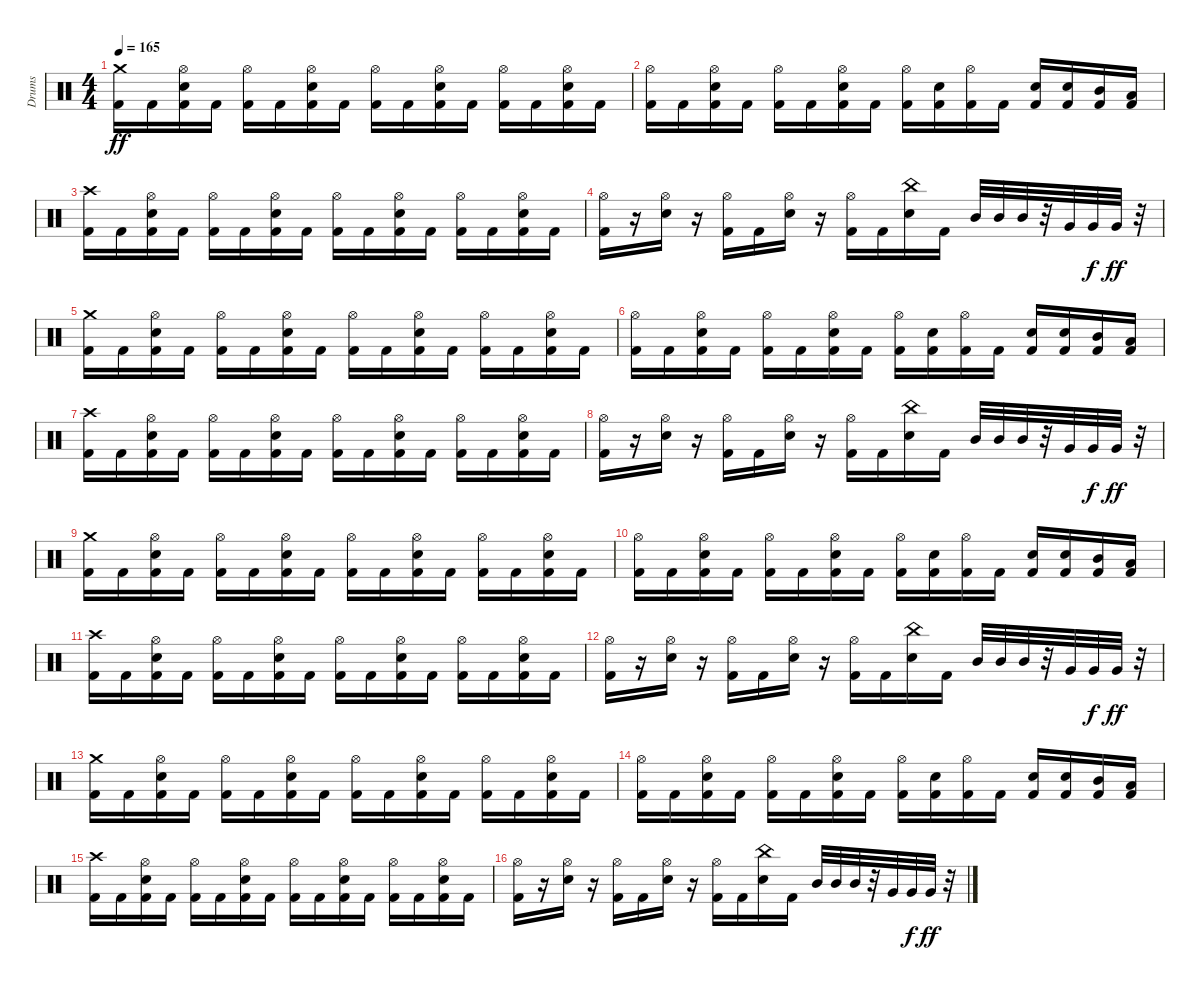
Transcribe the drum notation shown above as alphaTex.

\track ("Drums" "Drums") {instrument percussion}
\staff {score}
\articulation defaults
\ts (4 4)
\tempo 165
\clef neutral
\ks c
("Kick (hit) 2" "Crash medium (hit)").16{dy ff} "Kick (hit) 2".16 ("Kick (hit) 2" "Snare (hit) 2" "Hi-Hat (open)").16 "Kick (hit) 2".16 ("Kick (hit) 2" "Hi-Hat (open)").16 "Kick (hit) 2".16 ("Kick (hit) 2" "Snare (hit) 2" "Hi-Hat (open)").16 "Kick (hit) 2".16 ("Kick (hit) 2" "Hi-Hat (open)").16 "Kick (hit) 2".16 ("Kick (hit) 2" "Snare (hit) 2" "Hi-Hat (open)").16 "Kick (hit) 2".16 ("Kick (hit) 2" "Hi-Hat (open)").16 "Kick (hit) 2".16 ("Kick (hit) 2" "Snare (hit) 2" "Hi-Hat (open)").16 "Kick (hit) 2".16 |
("Kick (hit) 2" "Hi-Hat (open)").16 "Kick (hit) 2".16 ("Kick (hit) 2" "Snare (hit) 2" "Hi-Hat (open)").16 "Kick (hit) 2".16 ("Kick (hit) 2" "Hi-Hat (open)").16 "Kick (hit) 2".16 ("Kick (hit) 2" "Snare (hit) 2" "Hi-Hat (open)").16 "Kick (hit) 2".16 ("Kick (hit) 2" "Hi-Hat (open)").16 ("Kick (hit) 2" "Snare (hit) 2").16 ("Kick (hit) 2" "Hi-Hat (open)").16 "Kick (hit) 2".16 ("Kick (hit) 2" "Snare (hit) 2").16 ("Kick (hit) 2" "Snare (hit) 2").16 ("Kick (hit) 2" "Mid Tom (hit)").16 ("Kick (hit) 2" "Low Tom (hit)").16 |
("Kick (hit) 2" "Crash high (hit)").16 "Kick (hit) 2".16 ("Kick (hit) 2" "Snare (hit) 2" "Hi-Hat (open)").16 "Kick (hit) 2".16 ("Kick (hit) 2" "Hi-Hat (open)").16 "Kick (hit) 2".16 ("Kick (hit) 2" "Snare (hit) 2" "Hi-Hat (open)").16 "Kick (hit) 2".16 ("Kick (hit) 2" "Hi-Hat (open)").16 "Kick (hit) 2".16 ("Kick (hit) 2" "Snare (hit) 2" "Hi-Hat (open)").16 "Kick (hit) 2".16 ("Kick (hit) 2" "Hi-Hat (open)").16 "Kick (hit) 2".16 ("Kick (hit) 2" "Snare (hit) 2" "Hi-Hat (open)").16 "Kick (hit) 2".16 |
("Kick (hit) 2" "Hi-Hat (open)").16 r.16 ("Snare (hit) 2" "Hi-Hat (open)").16 r.16 ("Kick (hit) 2" "Hi-Hat (open)").16 "Kick (hit) 2".16 ("Snare (hit) 2" "Hi-Hat (open)").16 r.16 ("Kick (hit) 2" "Hi-Hat (open)").16 "Kick (hit) 2".16 ("Snare (hit) 2" "China (hit)").16 "Kick (hit) 2".16 "Mid Tom (hit)".32 "Mid Tom (hit)".32 "Mid Tom (hit)".32 r.32 "Very Low Tom (hit)".32 "Very Low Tom (hit)".32{dy f} "Very Low Tom (hit)".32{dy ff} r.32 |
("Kick (hit) 2" "Crash medium (hit)").16 "Kick (hit) 2".16 ("Kick (hit) 2" "Snare (hit) 2" "Hi-Hat (open)").16 "Kick (hit) 2".16 ("Kick (hit) 2" "Hi-Hat (open)").16 "Kick (hit) 2".16 ("Kick (hit) 2" "Snare (hit) 2" "Hi-Hat (open)").16 "Kick (hit) 2".16 ("Kick (hit) 2" "Hi-Hat (open)").16 "Kick (hit) 2".16 ("Kick (hit) 2" "Snare (hit) 2" "Hi-Hat (open)").16 "Kick (hit) 2".16 ("Kick (hit) 2" "Hi-Hat (open)").16 "Kick (hit) 2".16 ("Kick (hit) 2" "Snare (hit) 2" "Hi-Hat (open)").16 "Kick (hit) 2".16 |
("Kick (hit) 2" "Hi-Hat (open)").16 "Kick (hit) 2".16 ("Kick (hit) 2" "Snare (hit) 2" "Hi-Hat (open)").16 "Kick (hit) 2".16 ("Kick (hit) 2" "Hi-Hat (open)").16 "Kick (hit) 2".16 ("Kick (hit) 2" "Snare (hit) 2" "Hi-Hat (open)").16 "Kick (hit) 2".16 ("Kick (hit) 2" "Hi-Hat (open)").16 ("Kick (hit) 2" "Snare (hit) 2").16 ("Kick (hit) 2" "Hi-Hat (open)").16 "Kick (hit) 2".16 ("Kick (hit) 2" "Snare (hit) 2").16 ("Kick (hit) 2" "Snare (hit) 2").16 ("Kick (hit) 2" "Mid Tom (hit)").16 ("Kick (hit) 2" "Low Tom (hit)").16 |
("Kick (hit) 2" "Crash high (hit)").16 "Kick (hit) 2".16 ("Kick (hit) 2" "Snare (hit) 2" "Hi-Hat (open)").16 "Kick (hit) 2".16 ("Kick (hit) 2" "Hi-Hat (open)").16 "Kick (hit) 2".16 ("Kick (hit) 2" "Snare (hit) 2" "Hi-Hat (open)").16 "Kick (hit) 2".16 ("Kick (hit) 2" "Hi-Hat (open)").16 "Kick (hit) 2".16 ("Kick (hit) 2" "Snare (hit) 2" "Hi-Hat (open)").16 "Kick (hit) 2".16 ("Kick (hit) 2" "Hi-Hat (open)").16 "Kick (hit) 2".16 ("Kick (hit) 2" "Snare (hit) 2" "Hi-Hat (open)").16 "Kick (hit) 2".16 |
("Kick (hit) 2" "Hi-Hat (open)").16 r.16 ("Snare (hit) 2" "Hi-Hat (open)").16 r.16 ("Kick (hit) 2" "Hi-Hat (open)").16 "Kick (hit) 2".16 ("Snare (hit) 2" "Hi-Hat (open)").16 r.16 ("Kick (hit) 2" "Hi-Hat (open)").16 "Kick (hit) 2".16 ("Snare (hit) 2" "China (hit)").16 "Kick (hit) 2".16 "Mid Tom (hit)".32 "Mid Tom (hit)".32 "Mid Tom (hit)".32 r.32 "Very Low Tom (hit)".32 "Very Low Tom (hit)".32{dy f} "Very Low Tom (hit)".32{dy ff} r.32 |
("Kick (hit) 2" "Crash medium (hit)").16 "Kick (hit) 2".16 ("Kick (hit) 2" "Snare (hit) 2" "Hi-Hat (open)").16 "Kick (hit) 2".16 ("Kick (hit) 2" "Hi-Hat (open)").16 "Kick (hit) 2".16 ("Kick (hit) 2" "Snare (hit) 2" "Hi-Hat (open)").16 "Kick (hit) 2".16 ("Kick (hit) 2" "Hi-Hat (open)").16 "Kick (hit) 2".16 ("Kick (hit) 2" "Snare (hit) 2" "Hi-Hat (open)").16 "Kick (hit) 2".16 ("Kick (hit) 2" "Hi-Hat (open)").16 "Kick (hit) 2".16 ("Kick (hit) 2" "Snare (hit) 2" "Hi-Hat (open)").16 "Kick (hit) 2".16 |
("Kick (hit) 2" "Hi-Hat (open)").16 "Kick (hit) 2".16 ("Kick (hit) 2" "Snare (hit) 2" "Hi-Hat (open)").16 "Kick (hit) 2".16 ("Kick (hit) 2" "Hi-Hat (open)").16 "Kick (hit) 2".16 ("Kick (hit) 2" "Snare (hit) 2" "Hi-Hat (open)").16 "Kick (hit) 2".16 ("Kick (hit) 2" "Hi-Hat (open)").16 ("Kick (hit) 2" "Snare (hit) 2").16 ("Kick (hit) 2" "Hi-Hat (open)").16 "Kick (hit) 2".16 ("Kick (hit) 2" "Snare (hit) 2").16 ("Kick (hit) 2" "Snare (hit) 2").16 ("Kick (hit) 2" "Mid Tom (hit)").16 ("Kick (hit) 2" "Low Tom (hit)").16 |
("Kick (hit) 2" "Crash high (hit)").16 "Kick (hit) 2".16 ("Kick (hit) 2" "Snare (hit) 2" "Hi-Hat (open)").16 "Kick (hit) 2".16 ("Kick (hit) 2" "Hi-Hat (open)").16 "Kick (hit) 2".16 ("Kick (hit) 2" "Snare (hit) 2" "Hi-Hat (open)").16 "Kick (hit) 2".16 ("Kick (hit) 2" "Hi-Hat (open)").16 "Kick (hit) 2".16 ("Kick (hit) 2" "Snare (hit) 2" "Hi-Hat (open)").16 "Kick (hit) 2".16 ("Kick (hit) 2" "Hi-Hat (open)").16 "Kick (hit) 2".16 ("Kick (hit) 2" "Snare (hit) 2" "Hi-Hat (open)").16 "Kick (hit) 2".16 |
("Kick (hit) 2" "Hi-Hat (open)").16 r.16 ("Snare (hit) 2" "Hi-Hat (open)").16 r.16 ("Kick (hit) 2" "Hi-Hat (open)").16 "Kick (hit) 2".16 ("Snare (hit) 2" "Hi-Hat (open)").16 r.16 ("Kick (hit) 2" "Hi-Hat (open)").16 "Kick (hit) 2".16 ("Snare (hit) 2" "China (hit)").16 "Kick (hit) 2".16 "Mid Tom (hit)".32 "Mid Tom (hit)".32 "Mid Tom (hit)".32 r.32 "Very Low Tom (hit)".32 "Very Low Tom (hit)".32{dy f} "Very Low Tom (hit)".32{dy ff} r.32 |
("Kick (hit) 2" "Crash medium (hit)").16 "Kick (hit) 2".16 ("Kick (hit) 2" "Snare (hit) 2" "Hi-Hat (open)").16 "Kick (hit) 2".16 ("Kick (hit) 2" "Hi-Hat (open)").16 "Kick (hit) 2".16 ("Kick (hit) 2" "Snare (hit) 2" "Hi-Hat (open)").16 "Kick (hit) 2".16 ("Kick (hit) 2" "Hi-Hat (open)").16 "Kick (hit) 2".16 ("Kick (hit) 2" "Snare (hit) 2" "Hi-Hat (open)").16 "Kick (hit) 2".16 ("Kick (hit) 2" "Hi-Hat (open)").16 "Kick (hit) 2".16 ("Kick (hit) 2" "Snare (hit) 2" "Hi-Hat (open)").16 "Kick (hit) 2".16 |
("Kick (hit) 2" "Hi-Hat (open)").16 "Kick (hit) 2".16 ("Kick (hit) 2" "Snare (hit) 2" "Hi-Hat (open)").16 "Kick (hit) 2".16 ("Kick (hit) 2" "Hi-Hat (open)").16 "Kick (hit) 2".16 ("Kick (hit) 2" "Snare (hit) 2" "Hi-Hat (open)").16 "Kick (hit) 2".16 ("Kick (hit) 2" "Hi-Hat (open)").16 ("Kick (hit) 2" "Snare (hit) 2").16 ("Kick (hit) 2" "Hi-Hat (open)").16 "Kick (hit) 2".16 ("Kick (hit) 2" "Snare (hit) 2").16 ("Kick (hit) 2" "Snare (hit) 2").16 ("Kick (hit) 2" "Mid Tom (hit)").16 ("Kick (hit) 2" "Low Tom (hit)").16 |
("Kick (hit) 2" "Crash high (hit)").16 "Kick (hit) 2".16 ("Kick (hit) 2" "Snare (hit) 2" "Hi-Hat (open)").16 "Kick (hit) 2".16 ("Kick (hit) 2" "Hi-Hat (open)").16 "Kick (hit) 2".16 ("Kick (hit) 2" "Snare (hit) 2" "Hi-Hat (open)").16 "Kick (hit) 2".16 ("Kick (hit) 2" "Hi-Hat (open)").16 "Kick (hit) 2".16 ("Kick (hit) 2" "Snare (hit) 2" "Hi-Hat (open)").16 "Kick (hit) 2".16 ("Kick (hit) 2" "Hi-Hat (open)").16 "Kick (hit) 2".16 ("Kick (hit) 2" "Snare (hit) 2" "Hi-Hat (open)").16 "Kick (hit) 2".16 |
("Kick (hit) 2" "Hi-Hat (open)").16 r.16 ("Snare (hit) 2" "Hi-Hat (open)").16 r.16 ("Kick (hit) 2" "Hi-Hat (open)").16 "Kick (hit) 2".16 ("Snare (hit) 2" "Hi-Hat (open)").16 r.16 ("Kick (hit) 2" "Hi-Hat (open)").16 "Kick (hit) 2".16 ("Snare (hit) 2" "China (hit)").16 "Kick (hit) 2".16 "Mid Tom (hit)".32 "Mid Tom (hit)".32 "Mid Tom (hit)".32 r.32 "Very Low Tom (hit)".32 "Very Low Tom (hit)".32{dy f} "Very Low Tom (hit)".32{dy ff} r.32
